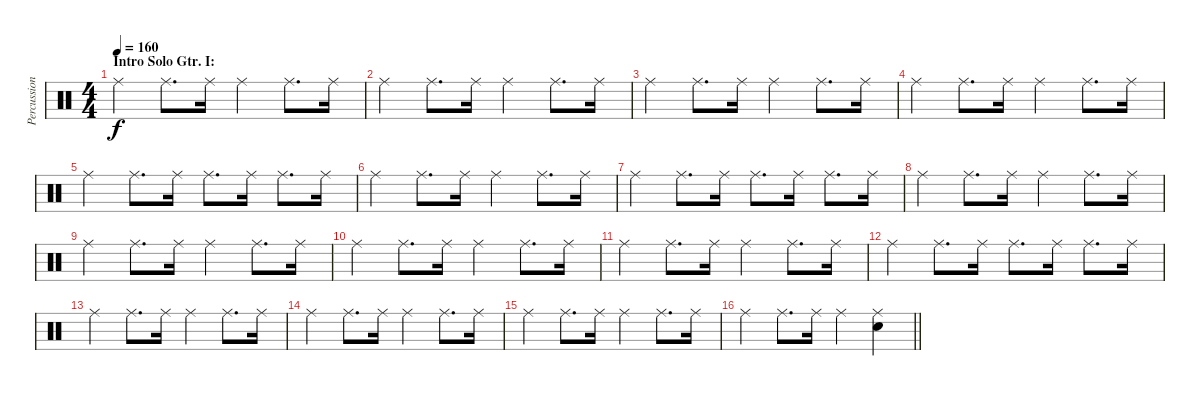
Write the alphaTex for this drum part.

\track ("Percussion" "Percussion") {instrument percussion}
\staff {score}
\articulation defaults
\ts (4 4)
\section ("" "Intro Solo Gtr. I:")
\tempo 160
\clef neutral
\ks c "Ride (middle)".4{dy f} "Ride (middle)".8{d} "Ride (middle)".16 "Ride (middle)".4 "Ride (middle)".8{d} "Ride (middle)".16
|
"Ride (middle)".4 "Ride (middle)".8{d} "Ride (middle)".16 "Ride (middle)".4 "Ride (middle)".8{d} "Ride (middle)".16 |
"Ride (middle)".4 "Ride (middle)".8{d} "Ride (middle)".16 "Ride (middle)".4 "Ride (middle)".8{d} "Ride (middle)".16 |
"Ride (middle)".4 "Ride (middle)".8{d} "Ride (middle)".16 "Ride (middle)".4 "Ride (middle)".8{d} "Ride (middle)".16 |
"Ride (middle)".4 "Ride (middle)".8{d} "Ride (middle)".16 "Ride (middle)".8{d} "Ride (middle)".16 "Ride (middle)".8{d} "Ride (middle)".16 |
"Ride (middle)".4 "Ride (middle)".8{d} "Ride (middle)".16 "Ride (middle)".4 "Ride (middle)".8{d} "Ride (middle)".16 |
"Ride (middle)".4 "Ride (middle)".8{d} "Ride (middle)".16 "Ride (middle)".8{d} "Ride (middle)".16 "Ride (middle)".8{d} "Ride (middle)".16 |
"Ride (middle)".4 "Ride (middle)".8{d} "Ride (middle)".16 "Ride (middle)".4 "Ride (middle)".8{d} "Ride (middle)".16 |
"Ride (middle)".4 "Ride (middle)".8{d} "Ride (middle)".16 "Ride (middle)".4 "Ride (middle)".8{d} "Ride (middle)".16 |
"Ride (middle)".4 "Ride (middle)".8{d} "Ride (middle)".16 "Ride (middle)".4 "Ride (middle)".8{d} "Ride (middle)".16 |
"Ride (middle)".4 "Ride (middle)".8{d} "Ride (middle)".16 "Ride (middle)".4 "Ride (middle)".8{d} "Ride (middle)".16 |
"Ride (middle)".4 "Ride (middle)".8{d} "Ride (middle)".16 "Ride (middle)".8{d} "Ride (middle)".16 "Ride (middle)".8{d} "Ride (middle)".16 |
"Ride (middle)".4 "Ride (middle)".8{d} "Ride (middle)".16 "Ride (middle)".4 "Ride (middle)".8{d} "Ride (middle)".16 |
"Ride (middle)".4 "Ride (middle)".8{d} "Ride (middle)".16 "Ride (middle)".4 "Ride (middle)".8{d} "Ride (middle)".16 |
"Ride (middle)".4 "Ride (middle)".8{d} "Ride (middle)".16 "Ride (middle)".4 "Ride (middle)".8{d} "Ride (middle)".16 |
\barLineRight lightlight "Ride (middle)".4 "Ride (middle)".8{d} "Ride (middle)".16 "Ride (middle)".4
("Ride (middle)" "Snare (hit) 2").4
